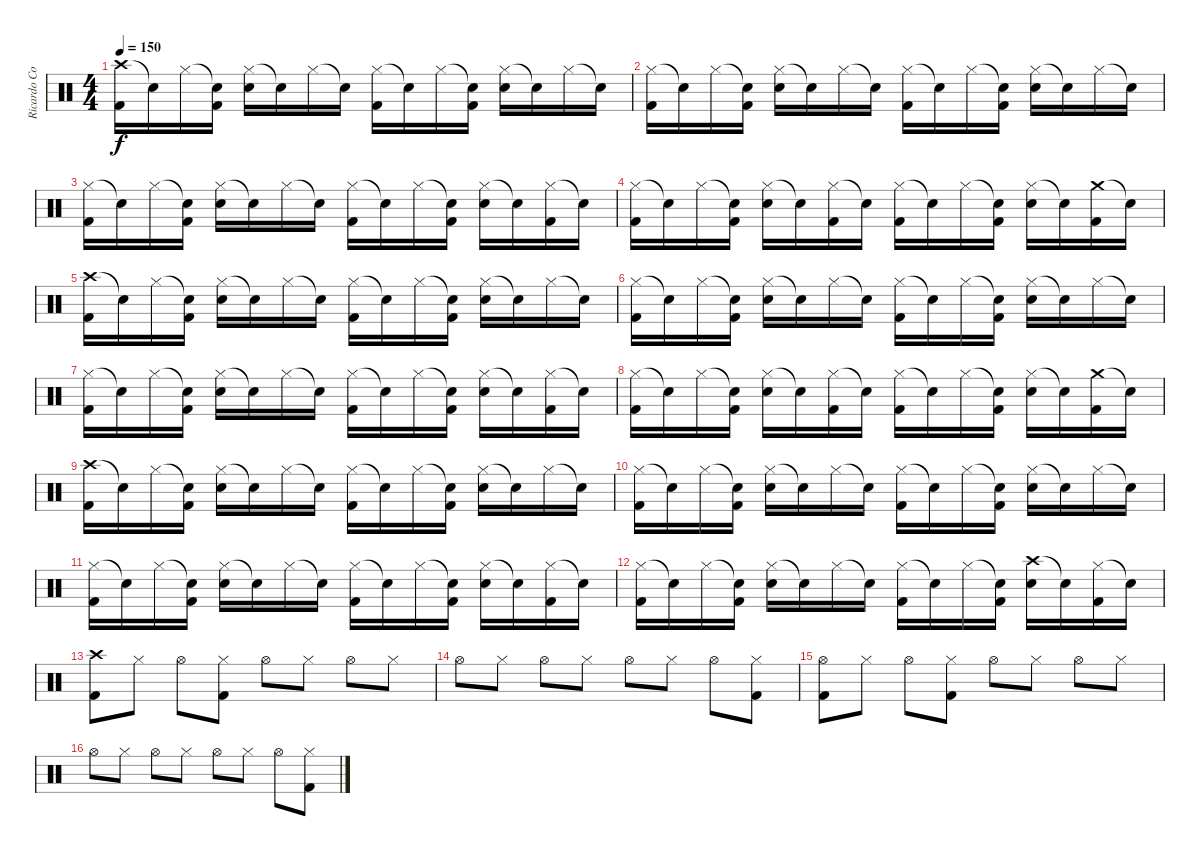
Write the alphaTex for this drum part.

\track ("Ricardo Confessori" "Ricardo Co") {instrument percussion}
\staff {score}
\articulation defaults
\ts (4 4)
\tempo 150
\clef neutral
\ks c
("Crash high (hit)" "Kick (hit) 2").16{dy f} "Snare (hit)"{t}.16 "Hi-Hat (closed)".16 ("Snare (hit)"{t} "Kick (hit) 2").16 ("Hi-Hat (closed)" "Electric Snare (hit)").16 "Snare (hit)"{t}.16 "Hi-Hat (closed)".16 "Snare (hit)"{t}.16 ("Hi-Hat (closed)" "Kick (hit) 2").16 "Snare (hit)"{t}.16 "Hi-Hat (closed)".16 ("Snare (hit)"{t} "Kick (hit) 2").16 ("Hi-Hat (closed)" "Electric Snare (hit)").16 "Snare (hit)"{t}.16 "Hi-Hat (closed)".16 "Snare (hit)"{t}.16 |
("Hi-Hat (closed)" "Kick (hit) 2").16 "Snare (hit)"{t}.16 "Hi-Hat (closed)".16 ("Snare (hit)"{t} "Kick (hit) 2").16 ("Hi-Hat (closed)" "Electric Snare (hit)").16 "Snare (hit)"{t}.16 "Hi-Hat (closed)".16 "Snare (hit)"{t}.16 ("Hi-Hat (closed)" "Kick (hit) 2").16 "Snare (hit)"{t}.16 "Hi-Hat (closed)".16 ("Snare (hit)"{t} "Kick (hit) 2").16 ("Hi-Hat (closed)" "Electric Snare (hit)").16 "Snare (hit)"{t}.16 "Hi-Hat (closed)".16 "Snare (hit)"{t}.16 |
("Hi-Hat (closed)" "Kick (hit) 2").16 "Snare (hit)"{t}.16 "Hi-Hat (closed)".16 ("Snare (hit)"{t} "Kick (hit) 2").16 ("Hi-Hat (closed)" "Electric Snare (hit)").16 "Snare (hit)"{t}.16 "Hi-Hat (closed)".16 "Snare (hit)"{t}.16 ("Hi-Hat (closed)" "Kick (hit) 2").16 "Snare (hit)"{t}.16 "Hi-Hat (closed)".16 ("Snare (hit)"{t} "Kick (hit) 2").16 ("Hi-Hat (closed)" "Electric Snare (hit)").16 "Snare (hit)"{t}.16 ("Hi-Hat (closed)" "Kick (hit) 2").16 "Snare (hit)"{t}.16 |
("Hi-Hat (closed)" "Kick (hit) 2").16 "Snare (hit)"{t}.16 "Hi-Hat (closed)".16 ("Snare (hit)"{t} "Kick (hit) 2").16 ("Hi-Hat (closed)" "Electric Snare (hit)").16 "Snare (hit)"{t}.16 ("Hi-Hat (closed)" "Kick (hit) 2").16 "Snare (hit)"{t}.16 ("Hi-Hat (closed)" "Kick (hit) 2").16 "Snare (hit)"{t}.16 "Hi-Hat (closed)".16 ("Snare (hit)"{t} "Kick (hit) 2").16 ("Hi-Hat (closed)" "Electric Snare (hit)").16 "Snare (hit)"{t}.16 ("Crash medium (hit)" "Kick (hit) 2").16 "Snare (hit)"{t}.16 |
("Crash high (hit)" "Kick (hit) 2").16 "Snare (hit)"{t}.16 "Hi-Hat (closed)".16 ("Snare (hit)"{t} "Kick (hit) 2").16 ("Hi-Hat (closed)" "Electric Snare (hit)").16 "Snare (hit)"{t}.16 "Hi-Hat (closed)".16 "Snare (hit)"{t}.16 ("Hi-Hat (closed)" "Kick (hit) 2").16 "Snare (hit)"{t}.16 "Hi-Hat (closed)".16 ("Snare (hit)"{t} "Kick (hit) 2").16 ("Hi-Hat (closed)" "Electric Snare (hit)").16 "Snare (hit)"{t}.16 "Hi-Hat (closed)".16 "Snare (hit)"{t}.16 |
("Hi-Hat (closed)" "Kick (hit) 2").16 "Snare (hit)"{t}.16 "Hi-Hat (closed)".16 ("Snare (hit)"{t} "Kick (hit) 2").16 ("Hi-Hat (closed)" "Electric Snare (hit)").16 "Snare (hit)"{t}.16 "Hi-Hat (closed)".16 "Snare (hit)"{t}.16 ("Hi-Hat (closed)" "Kick (hit) 2").16 "Snare (hit)"{t}.16 "Hi-Hat (closed)".16 ("Snare (hit)"{t} "Kick (hit) 2").16 ("Hi-Hat (closed)" "Electric Snare (hit)").16 "Snare (hit)"{t}.16 "Hi-Hat (closed)".16 "Snare (hit)"{t}.16 |
("Hi-Hat (closed)" "Kick (hit) 2").16 "Snare (hit)"{t}.16 "Hi-Hat (closed)".16 ("Snare (hit)"{t} "Kick (hit) 2").16 ("Hi-Hat (closed)" "Electric Snare (hit)").16 "Snare (hit)"{t}.16 "Hi-Hat (closed)".16 "Snare (hit)"{t}.16 ("Hi-Hat (closed)" "Kick (hit) 2").16 "Snare (hit)"{t}.16 "Hi-Hat (closed)".16 ("Snare (hit)"{t} "Kick (hit) 2").16 ("Hi-Hat (closed)" "Electric Snare (hit)").16 "Snare (hit)"{t}.16 ("Hi-Hat (closed)" "Kick (hit) 2").16 "Snare (hit)"{t}.16 |
("Hi-Hat (closed)" "Kick (hit) 2").16 "Snare (hit)"{t}.16 "Hi-Hat (closed)".16 ("Snare (hit)"{t} "Kick (hit) 2").16 ("Hi-Hat (closed)" "Electric Snare (hit)").16 "Snare (hit)"{t}.16 ("Hi-Hat (closed)" "Kick (hit) 2").16 "Snare (hit)"{t}.16 ("Hi-Hat (closed)" "Kick (hit) 2").16 "Snare (hit)"{t}.16 "Hi-Hat (closed)".16 ("Snare (hit)"{t} "Kick (hit) 2").16 ("Hi-Hat (closed)" "Electric Snare (hit)").16 "Snare (hit)"{t}.16 ("Crash medium (hit)" "Kick (hit) 2").16 "Snare (hit)"{t}.16 |
("Crash high (hit)" "Kick (hit) 2").16 "Snare (hit)"{t}.16 "Hi-Hat (closed)".16 ("Snare (hit)"{t} "Kick (hit) 2").16 ("Hi-Hat (closed)" "Electric Snare (hit)").16 "Snare (hit)"{t}.16 "Hi-Hat (closed)".16 "Snare (hit)"{t}.16 ("Hi-Hat (closed)" "Kick (hit) 2").16 "Snare (hit)"{t}.16 "Hi-Hat (closed)".16 ("Snare (hit)"{t} "Kick (hit) 2").16 ("Hi-Hat (closed)" "Electric Snare (hit)").16 "Snare (hit)"{t}.16 "Hi-Hat (closed)".16 "Snare (hit)"{t}.16 |
("Hi-Hat (closed)" "Kick (hit) 2").16 "Snare (hit)"{t}.16 "Hi-Hat (closed)".16 ("Snare (hit)"{t} "Kick (hit) 2").16 ("Hi-Hat (closed)" "Electric Snare (hit)").16 "Snare (hit)"{t}.16 "Hi-Hat (closed)".16 "Snare (hit)"{t}.16 ("Hi-Hat (closed)" "Kick (hit) 2").16 "Snare (hit)"{t}.16 "Hi-Hat (closed)".16 ("Snare (hit)"{t} "Kick (hit) 2").16 ("Hi-Hat (closed)" "Electric Snare (hit)").16 "Snare (hit)"{t}.16 "Hi-Hat (closed)".16 "Snare (hit)"{t}.16 |
("Hi-Hat (closed)" "Kick (hit) 2").16 "Snare (hit)"{t}.16 "Hi-Hat (closed)".16 ("Snare (hit)"{t} "Kick (hit) 2").16 ("Hi-Hat (closed)" "Electric Snare (hit)").16 "Snare (hit)"{t}.16 "Hi-Hat (closed)".16 "Snare (hit)"{t}.16 ("Hi-Hat (closed)" "Kick (hit) 2").16 "Snare (hit)"{t}.16 "Hi-Hat (closed)".16 ("Snare (hit)"{t} "Kick (hit) 2").16 ("Hi-Hat (closed)" "Electric Snare (hit)").16 "Snare (hit)"{t}.16 ("Hi-Hat (closed)" "Kick (hit) 2").16 "Snare (hit)"{t}.16 |
("Hi-Hat (closed)" "Kick (hit) 2").16 "Snare (hit)"{t}.16 "Hi-Hat (closed)".16 ("Snare (hit)"{t} "Kick (hit) 2").16 ("Hi-Hat (closed)" "Electric Snare (hit)").16 "Snare (hit)"{t}.16 "Hi-Hat (closed)".16 "Snare (hit)"{t}.16 ("Hi-Hat (closed)" "Kick (hit) 2").16 "Snare (hit)"{t}.16 "Hi-Hat (closed)".16 ("Snare (hit)"{t} "Kick (hit) 2").16 ("Crash high (hit)" "Electric Snare (hit)").16 "Snare (hit)"{t}.16 ("Hi-Hat (closed)" "Kick (hit) 2").16 "Snare (hit)"{t}.16 |
("Crash high (hit)" "Kick (hit) 2").8 "Hi-Hat (closed)".8 "Hi-Hat (open)".8 ("Hi-Hat (closed)" "Kick (hit) 2").8 "Hi-Hat (open)".8 "Hi-Hat (closed)".8 "Hi-Hat (open)".8 "Hi-Hat (closed)".8 |
"Hi-Hat (open)".8 "Hi-Hat (closed)".8 "Hi-Hat (open)".8 "Hi-Hat (closed)".8 "Hi-Hat (open)".8 "Hi-Hat (closed)".8 "Hi-Hat (open)".8 ("Hi-Hat (closed)" "Kick (hit) 2").8 |
("Hi-Hat (open)" "Kick (hit) 2").8 "Hi-Hat (closed)".8 "Hi-Hat (open)".8 ("Hi-Hat (closed)" "Kick (hit) 2").8 "Hi-Hat (open)".8 "Hi-Hat (closed)".8 "Hi-Hat (open)".8 "Hi-Hat (closed)".8 |
"Hi-Hat (open)".8 "Hi-Hat (closed)".8 "Hi-Hat (open)".8 "Hi-Hat (closed)".8 "Hi-Hat (open)".8 "Hi-Hat (closed)".8 "Hi-Hat (open)".8 ("Hi-Hat (closed)" "Kick (hit) 2").8
